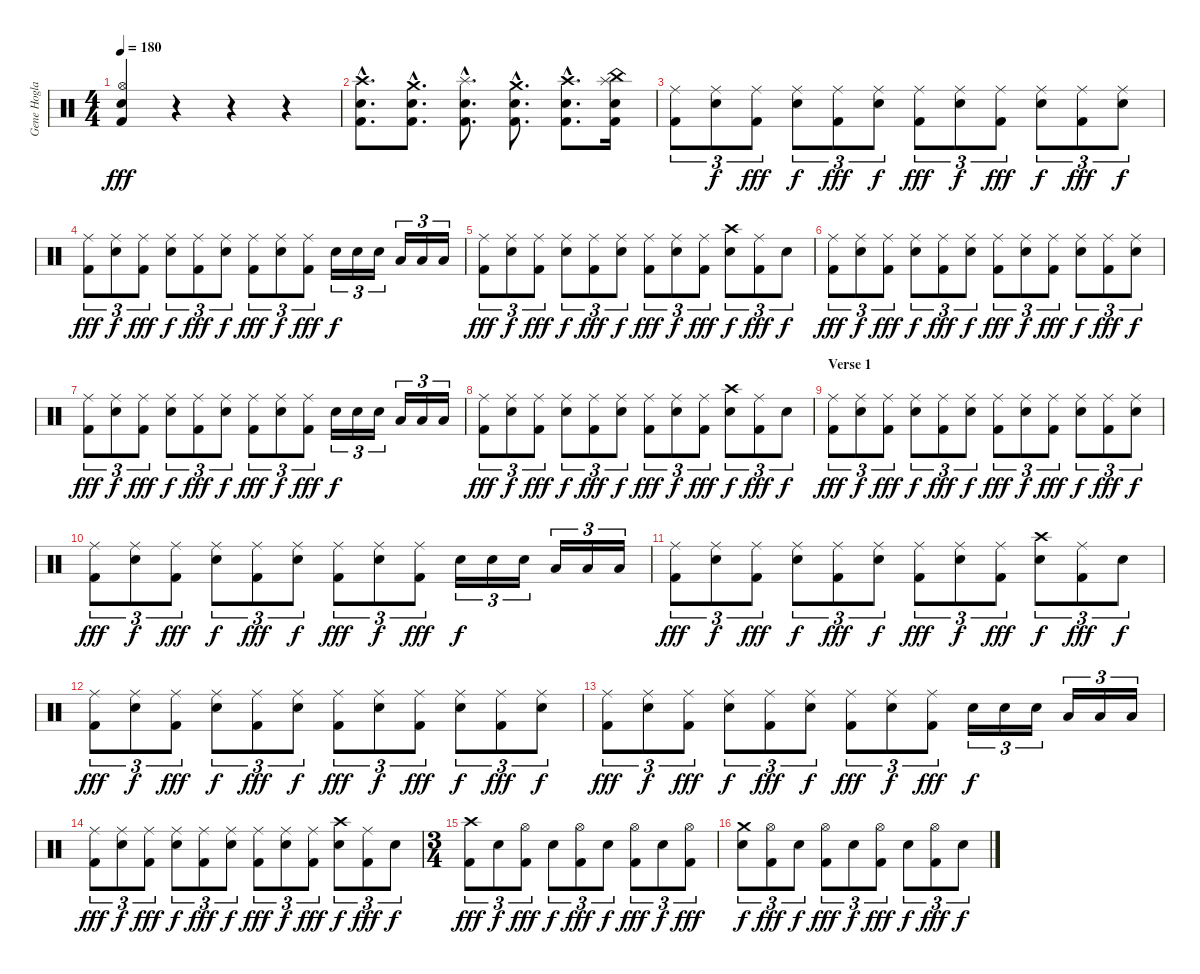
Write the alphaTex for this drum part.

\track ("Gene Hoglan" "Gene Hogla") {instrument percussion}
\staff {score}
\articulation defaults
\ts (4 4)
\tempo 180
\clef neutral
\ks c
("Snare (hit) 2" "Hi-Hat (open)" "Kick (hit) 2").4{dy fff} r.4 r.4 r.4 |
("Crash high (hit)"{hac} "Snare (hit) 2"{hac} "Kick (hit) 2"{hac}).8{d} ("Crash medium (hit)"{hac} "Snare (hit) 2"{hac} "Kick (hit) 2"{hac}).8{d} ("Splash (hit)"{hac} "Snare (hit) 2"{hac} "Kick (hit) 2"{hac}).8{d} ("Crash medium (hit)"{hac} "Snare (hit) 2"{hac} "Kick (hit) 2"{hac}).8{d} ("Crash high (hit)"{hac} "Snare (hit) 2"{hac} "Kick (hit) 2"{hac}).8{d} ("China (hit)" "Splash (hit)" "Snare (hit) 2" "Kick (hit) 2").16 |
("Ride (middle)" "Kick (hit) 2").8{tu (3 2)} ("Snare (hit) 2" "Ride (middle)").8{tu (3 2) dy f} ("Ride (middle)" "Kick (hit) 2").8{tu (3 2) dy fff} ("Snare (hit) 2" "Ride (middle)").8{tu (3 2) dy f} ("Ride (middle)" "Kick (hit) 2").8{tu (3 2) dy fff} ("Snare (hit) 2" "Ride (middle)").8{tu (3 2) dy f} ("Ride (middle)" "Kick (hit) 2").8{tu (3 2) dy fff} ("Snare (hit) 2" "Ride (middle)").8{tu (3 2) dy f} ("Ride (middle)" "Kick (hit) 2").8{tu (3 2) dy fff} ("Snare (hit) 2" "Ride (middle)").8{tu (3 2) dy f} ("Ride (middle)" "Kick (hit) 2").8{tu (3 2) dy fff} ("Snare (hit) 2" "Ride (middle)").8{tu (3 2) dy f} |
("Ride (middle)" "Kick (hit) 2").8{tu (3 2) dy fff} ("Snare (hit) 2" "Ride (middle)").8{tu (3 2) dy f} ("Ride (middle)" "Kick (hit) 2").8{tu (3 2) dy fff} ("Snare (hit) 2" "Ride (middle)").8{tu (3 2) dy f} ("Ride (middle)" "Kick (hit) 2").8{tu (3 2) dy fff} ("Snare (hit) 2" "Ride (middle)").8{tu (3 2) dy f} ("Ride (middle)" "Kick (hit) 2").8{tu (3 2) dy fff} ("Snare (hit) 2" "Ride (middle)").8{tu (3 2) dy f} ("Ride (middle)" "Kick (hit) 2").8{tu (3 2) dy fff} "Snare (hit) 2".16{tu (3 2) dy f} "Snare (hit) 2".16{tu (3 2)} "Snare (hit) 2".16{tu (3 2)} "Low Tom (hit)".16{tu (3 2)} "Low Tom (hit)".16{tu (3 2)} "Low Tom (hit)".16{tu (3 2)} |
("Ride (middle)" "Kick (hit) 2").8{tu (3 2) dy fff} ("Snare (hit) 2" "Ride (middle)").8{tu (3 2) dy f} ("Ride (middle)" "Kick (hit) 2").8{tu (3 2) dy fff} ("Snare (hit) 2" "Ride (middle)").8{tu (3 2) dy f} ("Ride (middle)" "Kick (hit) 2").8{tu (3 2) dy fff} ("Snare (hit) 2" "Ride (middle)").8{tu (3 2) dy f} ("Ride (middle)" "Kick (hit) 2").8{tu (3 2) dy fff} ("Snare (hit) 2" "Ride (middle)").8{tu (3 2) dy f} ("Ride (middle)" "Kick (hit) 2").8{tu (3 2) dy fff} ("Crash high (hit)" "Snare (hit) 2").8{tu (3 2) dy f} ("Ride (middle)" "Kick (hit) 2").8{tu (3 2) dy fff} "Snare (hit) 2".8{tu (3 2) dy f} |
("Ride (middle)" "Kick (hit) 2").8{tu (3 2) dy fff} ("Snare (hit) 2" "Ride (middle)").8{tu (3 2) dy f} ("Ride (middle)" "Kick (hit) 2").8{tu (3 2) dy fff} ("Snare (hit) 2" "Ride (middle)").8{tu (3 2) dy f} ("Ride (middle)" "Kick (hit) 2").8{tu (3 2) dy fff} ("Snare (hit) 2" "Ride (middle)").8{tu (3 2) dy f} ("Ride (middle)" "Kick (hit) 2").8{tu (3 2) dy fff} ("Snare (hit) 2" "Ride (middle)").8{tu (3 2) dy f} ("Ride (middle)" "Kick (hit) 2").8{tu (3 2) dy fff} ("Snare (hit) 2" "Ride (middle)").8{tu (3 2) dy f} ("Ride (middle)" "Kick (hit) 2").8{tu (3 2) dy fff} ("Snare (hit) 2" "Ride (middle)").8{tu (3 2) dy f} |
("Ride (middle)" "Kick (hit) 2").8{tu (3 2) dy fff} ("Snare (hit) 2" "Ride (middle)").8{tu (3 2) dy f} ("Ride (middle)" "Kick (hit) 2").8{tu (3 2) dy fff} ("Snare (hit) 2" "Ride (middle)").8{tu (3 2) dy f} ("Ride (middle)" "Kick (hit) 2").8{tu (3 2) dy fff} ("Snare (hit) 2" "Ride (middle)").8{tu (3 2) dy f} ("Ride (middle)" "Kick (hit) 2").8{tu (3 2) dy fff} ("Snare (hit) 2" "Ride (middle)").8{tu (3 2) dy f} ("Ride (middle)" "Kick (hit) 2").8{tu (3 2) dy fff} "Snare (hit) 2".16{tu (3 2) dy f} "Snare (hit) 2".16{tu (3 2)} "Snare (hit) 2".16{tu (3 2)} "Low Tom (hit)".16{tu (3 2)} "Low Tom (hit)".16{tu (3 2)} "Low Tom (hit)".16{tu (3 2)} |
("Ride (middle)" "Kick (hit) 2").8{tu (3 2) dy fff} ("Snare (hit) 2" "Ride (middle)").8{tu (3 2) dy f} ("Ride (middle)" "Kick (hit) 2").8{tu (3 2) dy fff} ("Snare (hit) 2" "Ride (middle)").8{tu (3 2) dy f} ("Ride (middle)" "Kick (hit) 2").8{tu (3 2) dy fff} ("Snare (hit) 2" "Ride (middle)").8{tu (3 2) dy f} ("Ride (middle)" "Kick (hit) 2").8{tu (3 2) dy fff} ("Snare (hit) 2" "Ride (middle)").8{tu (3 2) dy f} ("Ride (middle)" "Kick (hit) 2").8{tu (3 2) dy fff} ("Crash high (hit)" "Snare (hit) 2").8{tu (3 2) dy f} ("Ride (middle)" "Kick (hit) 2").8{tu (3 2) dy fff} "Snare (hit) 2".8{tu (3 2) dy f} |
\section ("" "Verse 1")
("Ride (middle)" "Kick (hit) 2").8{tu (3 2) dy fff} ("Snare (hit) 2" "Ride (middle)").8{tu (3 2) dy f} ("Ride (middle)" "Kick (hit) 2").8{tu (3 2) dy fff} ("Snare (hit) 2" "Ride (middle)").8{tu (3 2) dy f} ("Ride (middle)" "Kick (hit) 2").8{tu (3 2) dy fff} ("Snare (hit) 2" "Ride (middle)").8{tu (3 2) dy f} ("Ride (middle)" "Kick (hit) 2").8{tu (3 2) dy fff} ("Snare (hit) 2" "Ride (middle)").8{tu (3 2) dy f} ("Ride (middle)" "Kick (hit) 2").8{tu (3 2) dy fff} ("Snare (hit) 2" "Ride (middle)").8{tu (3 2) dy f} ("Ride (middle)" "Kick (hit) 2").8{tu (3 2) dy fff} ("Snare (hit) 2" "Ride (middle)").8{tu (3 2) dy f} |
("Ride (middle)" "Kick (hit) 2").8{tu (3 2) dy fff} ("Snare (hit) 2" "Ride (middle)").8{tu (3 2) dy f} ("Ride (middle)" "Kick (hit) 2").8{tu (3 2) dy fff} ("Snare (hit) 2" "Ride (middle)").8{tu (3 2) dy f} ("Ride (middle)" "Kick (hit) 2").8{tu (3 2) dy fff} ("Snare (hit) 2" "Ride (middle)").8{tu (3 2) dy f} ("Ride (middle)" "Kick (hit) 2").8{tu (3 2) dy fff} ("Snare (hit) 2" "Ride (middle)").8{tu (3 2) dy f} ("Ride (middle)" "Kick (hit) 2").8{tu (3 2) dy fff} "Snare (hit) 2".16{tu (3 2) dy f} "Snare (hit) 2".16{tu (3 2)} "Snare (hit) 2".16{tu (3 2)} "Low Tom (hit)".16{tu (3 2)} "Low Tom (hit)".16{tu (3 2)} "Low Tom (hit)".16{tu (3 2)} |
("Ride (middle)" "Kick (hit) 2").8{tu (3 2) dy fff} ("Snare (hit) 2" "Ride (middle)").8{tu (3 2) dy f} ("Ride (middle)" "Kick (hit) 2").8{tu (3 2) dy fff} ("Snare (hit) 2" "Ride (middle)").8{tu (3 2) dy f} ("Ride (middle)" "Kick (hit) 2").8{tu (3 2) dy fff} ("Snare (hit) 2" "Ride (middle)").8{tu (3 2) dy f} ("Ride (middle)" "Kick (hit) 2").8{tu (3 2) dy fff} ("Snare (hit) 2" "Ride (middle)").8{tu (3 2) dy f} ("Ride (middle)" "Kick (hit) 2").8{tu (3 2) dy fff} ("Crash high (hit)" "Snare (hit) 2").8{tu (3 2) dy f} ("Ride (middle)" "Kick (hit) 2").8{tu (3 2) dy fff} "Snare (hit) 2".8{tu (3 2) dy f} |
("Ride (middle)" "Kick (hit) 2").8{tu (3 2) dy fff} ("Snare (hit) 2" "Ride (middle)").8{tu (3 2) dy f} ("Ride (middle)" "Kick (hit) 2").8{tu (3 2) dy fff} ("Snare (hit) 2" "Ride (middle)").8{tu (3 2) dy f} ("Ride (middle)" "Kick (hit) 2").8{tu (3 2) dy fff} ("Snare (hit) 2" "Ride (middle)").8{tu (3 2) dy f} ("Ride (middle)" "Kick (hit) 2").8{tu (3 2) dy fff} ("Snare (hit) 2" "Ride (middle)").8{tu (3 2) dy f} ("Ride (middle)" "Kick (hit) 2").8{tu (3 2) dy fff} ("Snare (hit) 2" "Ride (middle)").8{tu (3 2) dy f} ("Ride (middle)" "Kick (hit) 2").8{tu (3 2) dy fff} ("Snare (hit) 2" "Ride (middle)").8{tu (3 2) dy f} |
("Ride (middle)" "Kick (hit) 2").8{tu (3 2) dy fff} ("Snare (hit) 2" "Ride (middle)").8{tu (3 2) dy f} ("Ride (middle)" "Kick (hit) 2").8{tu (3 2) dy fff} ("Snare (hit) 2" "Ride (middle)").8{tu (3 2) dy f} ("Ride (middle)" "Kick (hit) 2").8{tu (3 2) dy fff} ("Snare (hit) 2" "Ride (middle)").8{tu (3 2) dy f} ("Ride (middle)" "Kick (hit) 2").8{tu (3 2) dy fff} ("Snare (hit) 2" "Ride (middle)").8{tu (3 2) dy f} ("Ride (middle)" "Kick (hit) 2").8{tu (3 2) dy fff} "Snare (hit) 2".16{tu (3 2) dy f} "Snare (hit) 2".16{tu (3 2)} "Snare (hit) 2".16{tu (3 2)} "Low Tom (hit)".16{tu (3 2)} "Low Tom (hit)".16{tu (3 2)} "Low Tom (hit)".16{tu (3 2)} |
("Ride (middle)" "Kick (hit) 2").8{tu (3 2) dy fff} ("Snare (hit) 2" "Ride (middle)").8{tu (3 2) dy f} ("Ride (middle)" "Kick (hit) 2").8{tu (3 2) dy fff} ("Snare (hit) 2" "Ride (middle)").8{tu (3 2) dy f} ("Ride (middle)" "Kick (hit) 2").8{tu (3 2) dy fff} ("Snare (hit) 2" "Ride (middle)").8{tu (3 2) dy f} ("Ride (middle)" "Kick (hit) 2").8{tu (3 2) dy fff} ("Snare (hit) 2" "Ride (middle)").8{tu (3 2) dy f} ("Ride (middle)" "Kick (hit) 2").8{tu (3 2) dy fff} ("Crash high (hit)" "Snare (hit) 2").8{tu (3 2) dy f} ("Ride (middle)" "Kick (hit) 2").8{tu (3 2) dy fff} "Snare (hit) 2".8{tu (3 2) dy f} |
\ts (3 4)
("Crash high (hit)" "Kick (hit) 2").8{tu (3 2) dy fff} "Snare (hit) 2".8{tu (3 2) dy f} ("Hi-Hat (open)" "Kick (hit) 2").8{tu (3 2) dy fff} "Snare (hit) 2".8{tu (3 2) dy f} ("Hi-Hat (open)" "Kick (hit) 2").8{tu (3 2) dy fff} "Snare (hit) 2".8{tu (3 2) dy f} ("Hi-Hat (open)" "Kick (hit) 2").8{tu (3 2) dy fff} "Snare (hit) 2".8{tu (3 2) dy f} ("Hi-Hat (open)" "Kick (hit) 2").8{tu (3 2) dy fff} |
("Crash medium (hit)" "Snare (hit) 2").8{tu (3 2) dy f} ("Hi-Hat (open)" "Kick (hit) 2").8{tu (3 2) dy fff} "Snare (hit) 2".8{tu (3 2) dy f} ("Hi-Hat (open)" "Kick (hit) 2").8{tu (3 2) dy fff} "Snare (hit) 2".8{tu (3 2) dy f} ("Hi-Hat (open)" "Kick (hit) 2").8{tu (3 2) dy fff} "Snare (hit) 2".8{tu (3 2) dy f} ("Hi-Hat (open)" "Kick (hit) 2").8{tu (3 2) dy fff} "Snare (hit) 2".8{tu (3 2) dy f}
